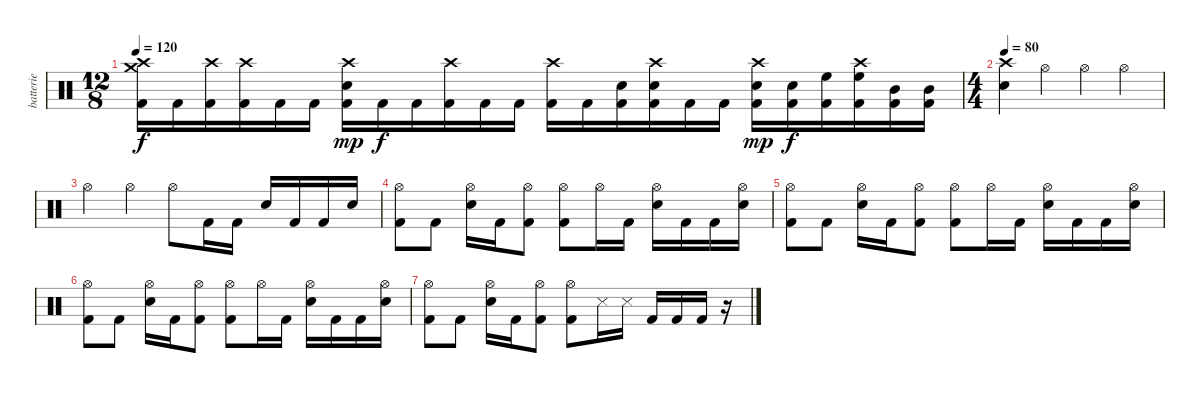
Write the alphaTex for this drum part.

\track ("batterie" "batterie") {instrument percussion}
\staff {score}
\articulation defaults
\ts (12 8)
\tempo 120
\clef neutral
\ks c
("Crash high (hit)" "Kick (hit) 2" "Crash medium (hit)").16{dy f} "Kick (hit) 2".16 ("Kick (hit) 2" "Crash high (hit)").16 ("Crash high (hit)" "Kick (hit) 2").16 "Kick (hit) 2".16 "Kick (hit) 2".16 ("Crash high (hit)" "Kick (hit) 2" "Snare (hit) 2").16{dy mp} "Kick (hit) 2".16{dy f} "Kick (hit) 2".16 ("Crash high (hit)" "Kick (hit) 2").16 "Kick (hit) 2".16 "Kick (hit) 2".16 ("Crash high (hit)" "Kick (hit) 2").16 "Kick (hit) 2".16 ("Kick (hit) 2" "Snare (hit) 2").16 ("Crash high (hit)" "Kick (hit) 2" "Snare (hit) 2").16 "Kick (hit) 2".16 "Kick (hit) 2".16 ("Crash high (hit)" "Kick (hit) 2" "Snare (hit) 2").16{dy mp} ("Kick (hit) 2" "Snare (hit) 2").16{dy f} ("Kick (hit) 2" "High Floor Tom (hit)").16 ("Crash high (hit)" "Kick (hit) 2" "High Floor Tom (hit)").16 ("Kick (hit) 2" "Mid Tom (hit)").16 ("Kick (hit) 2" "Mid Tom (hit)").16 |
\ts (4 4)
\tempo 80
("Snare (hit) 2" "Crash high (hit)").4 "Hi-Hat (open)".4 "Hi-Hat (open)".4 "Hi-Hat (open)".4 |
"Hi-Hat (open)".4 "Hi-Hat (open)".4 "Hi-Hat (open)".8 "Kick (hit) 2".16 "Kick (hit) 2".16 "Snare (hit) 2".16 "Kick (hit) 2".16 "Kick (hit) 2".16 "Snare (hit) 2".16 |
("Hi-Hat (open)" "Kick (hit) 2").8 "Kick (hit) 2".8 ("Hi-Hat (open)" "Snare (hit) 2").16 "Kick (hit) 2".16 ("Hi-Hat (open)" "Kick (hit) 2").8 ("Hi-Hat (open)" "Kick (hit) 2").8 "Hi-Hat (open)".16 "Kick (hit) 2".16 ("Hi-Hat (open)" "Snare (hit) 2").16 "Kick (hit) 2".16 "Kick (hit) 2".16 ("Hi-Hat (open)" "Snare (hit) 2").16 |
("Hi-Hat (open)" "Kick (hit) 2").8 "Kick (hit) 2".8 ("Hi-Hat (open)" "Snare (hit) 2").16 "Kick (hit) 2".16 ("Hi-Hat (open)" "Kick (hit) 2").8 ("Hi-Hat (open)" "Kick (hit) 2").8 "Hi-Hat (open)".16 "Kick (hit) 2".16 ("Hi-Hat (open)" "Snare (hit) 2").16 "Kick (hit) 2".16 "Kick (hit) 2".16 ("Hi-Hat (open)" "Snare (hit) 2").16 |
("Hi-Hat (open)" "Kick (hit) 2").8 "Kick (hit) 2".8 ("Hi-Hat (open)" "Snare (hit) 2").16 "Kick (hit) 2".16 ("Hi-Hat (open)" "Kick (hit) 2").8 ("Hi-Hat (open)" "Kick (hit) 2").8 "Hi-Hat (open)".16 "Kick (hit) 2".16 ("Hi-Hat (open)" "Snare (hit) 2").16 "Kick (hit) 2".16 "Kick (hit) 2".16 ("Hi-Hat (open)" "Snare (hit) 2").16 |
("Hi-Hat (open)" "Kick (hit) 2").8 "Kick (hit) 2".8 ("Hi-Hat (open)" "Snare (hit) 2").16 "Kick (hit) 2".16 ("Hi-Hat (open)" "Kick (hit) 2").8 ("Hi-Hat (open)" "Kick (hit) 2").8 "Snare (side stick) 3".16 "Snare (side stick) 3".16 "Kick (hit) 2".16 "Kick (hit) 2".16 "Kick (hit) 2".16 r.16
